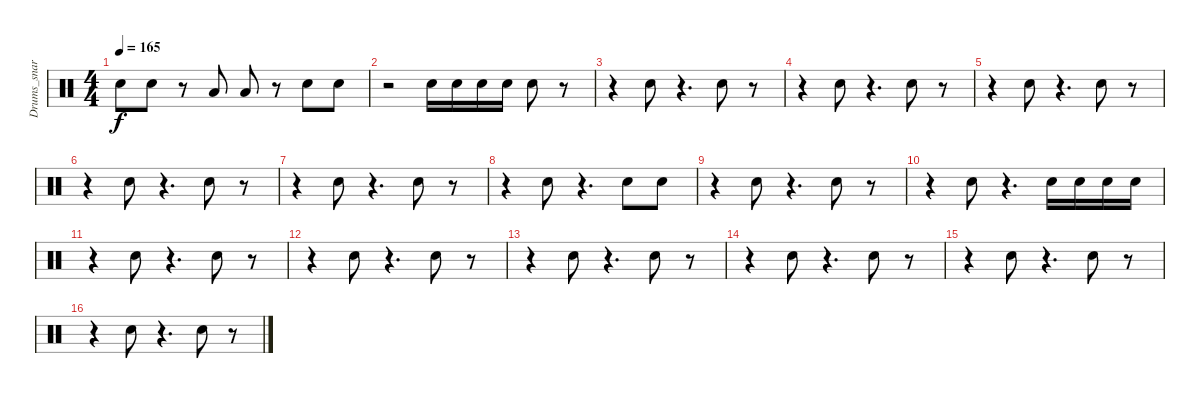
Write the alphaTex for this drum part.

\track ("Drums_snare&tom" "Drums_snar") {instrument percussion}
\staff {score}
\articulation defaults
\ts (4 4)
\tempo 165
\clef neutral
\ks c "Snare (hit) 2".8{dy f} "Snare (hit) 2".8
r.8 "Low Tom (hit)".8 "Low Tom (hit)".8 r.8 "Snare (hit) 2".8 "Snare (hit) 2".8 |
r.2 "Snare (hit) 2".16 "Snare (hit) 2".16 "Snare (hit) 2".16 "Snare (hit) 2".16 "Snare (hit) 2".8 r.8 |
r.4 "Snare (hit) 2".8 r.4{d} "Snare (hit) 2".8 r.8 |
r.4 "Snare (hit) 2".8 r.4{d} "Snare (hit) 2".8 r.8 |
r.4 "Snare (hit) 2".8 r.4{d} "Snare (hit) 2".8 r.8 |
r.4 "Snare (hit) 2".8 r.4{d} "Snare (hit) 2".8 r.8 |
r.4 "Snare (hit) 2".8 r.4{d} "Snare (hit) 2".8 r.8 |
r.4 "Snare (hit) 2".8 r.4{d} "Snare (hit) 2".8 "Snare (hit) 2".8 |
r.4 "Snare (hit) 2".8 r.4{d} "Snare (hit) 2".8 r.8 |
r.4 "Snare (hit) 2".8 r.4{d} "Snare (hit) 2".16 "Snare (hit) 2".16 "Snare (hit) 2".16 "Snare (hit) 2".16 |
r.4 "Snare (hit) 2".8 r.4{d} "Snare (hit) 2".8 r.8 |
r.4 "Snare (hit) 2".8 r.4{d} "Snare (hit) 2".8 r.8 |
r.4 "Snare (hit) 2".8 r.4{d} "Snare (hit) 2".8 r.8 |
r.4 "Snare (hit) 2".8 r.4{d} "Snare (hit) 2".8 r.8 |
r.4 "Snare (hit) 2".8 r.4{d} "Snare (hit) 2".8 r.8 |
r.4 "Snare (hit) 2".8 r.4{d} "Snare (hit) 2".8 r.8
